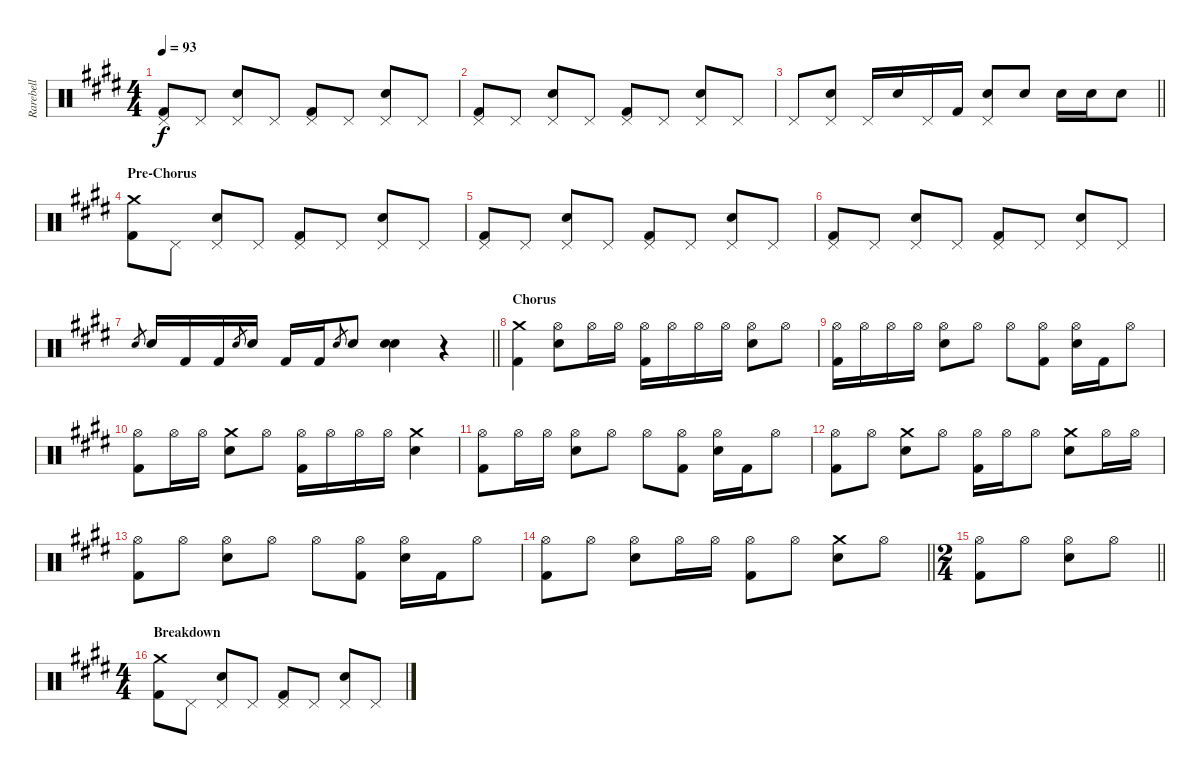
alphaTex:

\track ("Rarebell" "Rarebell") {instrument percussion}
\staff {score}
\articulation defaults
\ts (4 4)
\tempo 93
\clef neutral
\ks e
("Pedal Hi-Hat (hit)" "Kick (hit) 2").8{dy f} "Pedal Hi-Hat (hit)".8 ("Pedal Hi-Hat (hit)" "Snare (hit) 2").8 "Pedal Hi-Hat (hit)".8 ("Pedal Hi-Hat (hit)" "Kick (hit) 2").8 "Pedal Hi-Hat (hit)".8 ("Pedal Hi-Hat (hit)" "Snare (hit) 2").8 "Pedal Hi-Hat (hit)".8 |
("Pedal Hi-Hat (hit)" "Kick (hit) 2").8 "Pedal Hi-Hat (hit)".8 ("Pedal Hi-Hat (hit)" "Snare (hit) 2").8 "Pedal Hi-Hat (hit)".8 ("Pedal Hi-Hat (hit)" "Kick (hit) 2").8 "Pedal Hi-Hat (hit)".8 ("Pedal Hi-Hat (hit)" "Snare (hit) 2").8 "Pedal Hi-Hat (hit)".8 |
\barLineRight lightlight "Pedal Hi-Hat (hit)".8
("Pedal Hi-Hat (hit)" "Snare (hit) 2").8 "Pedal Hi-Hat (hit)".16 "Snare (hit) 2".16 "Pedal Hi-Hat (hit)".16 "Kick (hit) 2".16 ("Pedal Hi-Hat (hit)" "Snare (hit) 2").8 "Snare (hit) 2".8 "Snare (hit) 2".16 "Snare (hit) 2".16 "Snare (hit) 2".8 |
\section ("" "Pre-Chorus")
("Crash medium (hit)" "Kick (hit) 2").8 "Pedal Hi-Hat (hit)".8 ("Pedal Hi-Hat (hit)" "Snare (hit) 2").8 "Pedal Hi-Hat (hit)".8 ("Pedal Hi-Hat (hit)" "Kick (hit) 2").8 "Pedal Hi-Hat (hit)".8 ("Pedal Hi-Hat (hit)" "Snare (hit) 2").8 "Pedal Hi-Hat (hit)".8 |
("Pedal Hi-Hat (hit)" "Kick (hit) 2").8 "Pedal Hi-Hat (hit)".8 ("Pedal Hi-Hat (hit)" "Snare (hit) 2").8 "Pedal Hi-Hat (hit)".8 ("Pedal Hi-Hat (hit)" "Kick (hit) 2").8 "Pedal Hi-Hat (hit)".8 ("Pedal Hi-Hat (hit)" "Snare (hit) 2").8 "Pedal Hi-Hat (hit)".8 |
("Pedal Hi-Hat (hit)" "Kick (hit) 2").8 "Pedal Hi-Hat (hit)".8 ("Pedal Hi-Hat (hit)" "Snare (hit) 2").8 "Pedal Hi-Hat (hit)".8 ("Pedal Hi-Hat (hit)" "Kick (hit) 2").8 "Pedal Hi-Hat (hit)".8 ("Pedal Hi-Hat (hit)" "Snare (hit) 2").8 "Pedal Hi-Hat (hit)".8 |
\barLineRight lightlight "Snare (hit) 2".8{gr} "Snare (hit) 2".16 "Kick (hit) 2".16 "Kick (hit) 2".16 "Snare (hit) 2".8{gr} "Snare (hit) 2".16 "Kick (hit) 2".16 "Kick (hit) 2".16 "Snare (hit) 2".8{gr} "Snare (hit) 2".8
("Snare (hit) 2" "Snare (hit) 2").4 r.4 |
\section ("" "Chorus")
("Crash medium (hit)" "Kick (hit) 2").4 ("Hi-Hat (open)" "Snare (hit) 2").8 "Hi-Hat (open)".16 "Hi-Hat (open)".16 ("Hi-Hat (open)" "Kick (hit) 2").16 "Hi-Hat (open)".16 "Hi-Hat (open)".16 "Hi-Hat (open)".16 ("Hi-Hat (open)" "Snare (hit) 2").8 "Hi-Hat (open)".8 |
("Hi-Hat (open)" "Kick (hit) 2").16 "Hi-Hat (open)".16 "Hi-Hat (open)".16 "Hi-Hat (open)".16 ("Hi-Hat (open)" "Snare (hit) 2").8 "Hi-Hat (open)".8 "Hi-Hat (open)".8 ("Hi-Hat (open)" "Kick (hit) 2").8 ("Hi-Hat (open)" "Snare (hit) 2").16 "Kick (hit) 2".16 "Hi-Hat (open)".8 |
("Hi-Hat (open)" "Kick (hit) 2").8 "Hi-Hat (open)".16 "Hi-Hat (open)".16 ("Crash medium (hit)" "Snare (hit) 2").8 "Hi-Hat (open)".8 ("Hi-Hat (open)" "Kick (hit) 2").16 "Hi-Hat (open)".16 "Hi-Hat (open)".16 "Hi-Hat (open)".16 ("Crash medium (hit)" "Snare (hit) 2").4 |
("Hi-Hat (open)" "Kick (hit) 2").8 "Hi-Hat (open)".16 "Hi-Hat (open)".16 ("Hi-Hat (open)" "Snare (hit) 2").8 "Hi-Hat (open)".8 "Hi-Hat (open)".8 ("Hi-Hat (open)" "Kick (hit) 2").8 ("Hi-Hat (open)" "Snare (hit) 2").16 "Kick (hit) 2".16 "Hi-Hat (open)".8 |
("Hi-Hat (open)" "Kick (hit) 2").8 "Hi-Hat (open)".8 ("Crash medium (hit)" "Snare (hit) 2").8 "Hi-Hat (open)".8 ("Hi-Hat (open)" "Kick (hit) 2").16 "Hi-Hat (open)".16 "Hi-Hat (open)".8 ("Crash medium (hit)" "Snare (hit) 2").8 "Hi-Hat (open)".16 "Hi-Hat (open)".16 |
("Hi-Hat (open)" "Kick (hit) 2").8 "Hi-Hat (open)".8 ("Hi-Hat (open)" "Snare (hit) 2").8 "Hi-Hat (open)".8 "Hi-Hat (open)".8 ("Hi-Hat (open)" "Kick (hit) 2").8 ("Hi-Hat (open)" "Snare (hit) 2").16 "Kick (hit) 2".16 "Hi-Hat (open)".8 |
\barLineRight lightlight
("Hi-Hat (open)" "Kick (hit) 2").8 "Hi-Hat (open)".8 ("Hi-Hat (open)" "Snare (hit) 2").8 "Hi-Hat (open)".16 "Hi-Hat (open)".16 ("Hi-Hat (open)" "Kick (hit) 2").8 "Hi-Hat (open)".8 ("Crash medium (hit)" "Snare (hit) 2").8 "Hi-Hat (open)".8 |
\ts (2 4)
\barLineRight lightlight
("Hi-Hat (open)" "Kick (hit) 2").8 "Hi-Hat (open)".8 ("Hi-Hat (open)" "Snare (hit) 2").8 "Hi-Hat (open)".8 |
\ts (4 4)
\section ("" "Breakdown")
("Crash medium (hit)" "Kick (hit) 2").8 "Pedal Hi-Hat (hit)".8 ("Pedal Hi-Hat (hit)" "Snare (hit) 2").8 "Pedal Hi-Hat (hit)".8 ("Pedal Hi-Hat (hit)" "Kick (hit) 2").8 "Pedal Hi-Hat (hit)".8 ("Pedal Hi-Hat (hit)" "Snare (hit) 2").8 "Pedal Hi-Hat (hit)".8
